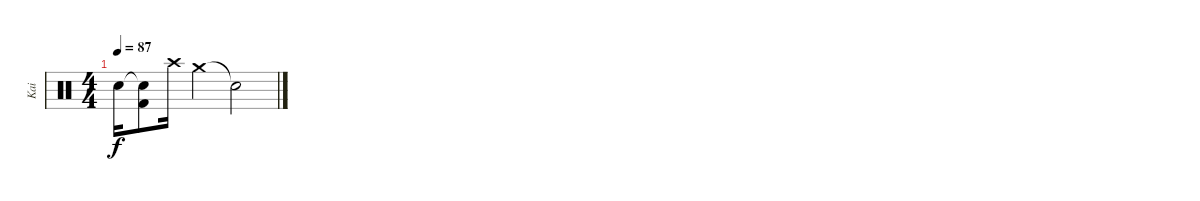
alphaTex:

\track ("Kai" "Kai") {instrument percussion}
\staff {score}
\articulation defaults
\ts (4 4)
\tempo 87
\clef neutral
\ks c "Snare (hit) 2".16{dy f}
("Snare (hit)"{t} "Kick (hit) 2").8 "Crash high (hit)".16 "Crash medium (hit)".4 "Snare (hit)"{t}.2
